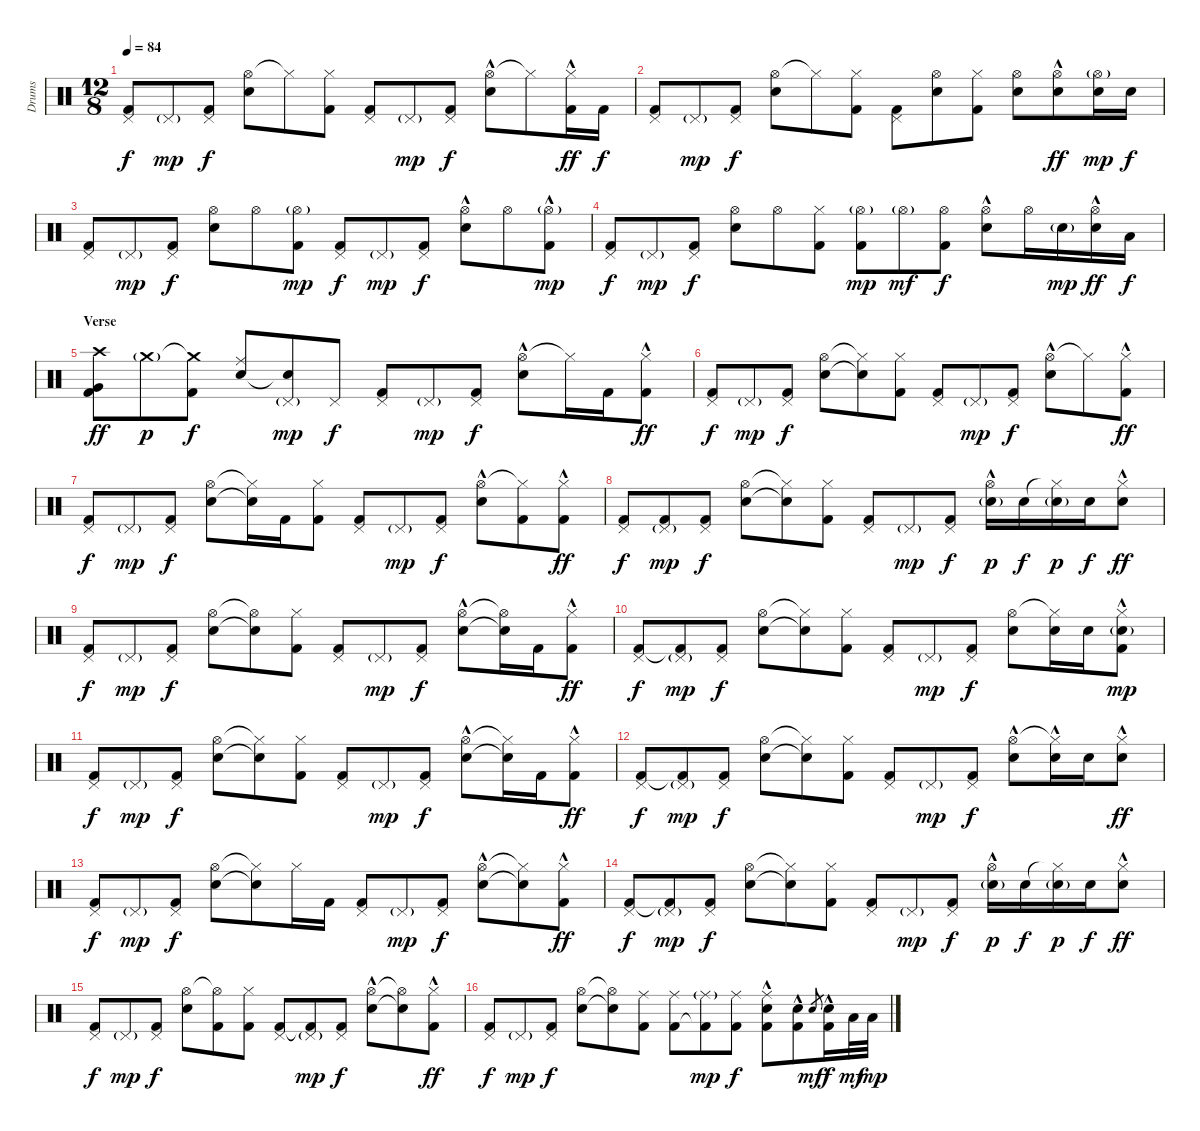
\track ("Drums" "Drums") {instrument percussion}
\staff {score}
\articulation defaults
\ts (12 8)
\tempo 84
\clef neutral
\ks c
("Pedal Hi-Hat (hit)" "Kick (hit) 2").8{dy f} "Pedal Hi-Hat (hit)"{g}.8{dy mp} ("Pedal Hi-Hat (hit)" "Kick (hit) 2").8{dy f} ("Hi-Hat (open)" "Electric Snare (hit)").8 "Hi-Hat (closed)"{t}.8 ("Hi-Hat (closed)" "Kick (hit) 2").8 ("Pedal Hi-Hat (hit)" "Kick (hit) 2").8 "Pedal Hi-Hat (hit)"{g}.8{dy mp} ("Pedal Hi-Hat (hit)" "Kick (hit) 2").8{dy f} ("Hi-Hat (open)" "Electric Snare (hit)"{hac}).8 "Hi-Hat (closed)"{t}.8 ("Hi-Hat (closed)"{hac} "Kick (hit) 2").16{dy ff} "Kick (hit) 2".16{dy f} |
("Pedal Hi-Hat (hit)" "Kick (hit) 2").8 "Pedal Hi-Hat (hit)"{g}.8{dy mp} ("Pedal Hi-Hat (hit)" "Kick (hit) 2").8{dy f} ("Hi-Hat (open)" "Electric Snare (hit)").8 "Hi-Hat (closed)"{t}.8 ("Hi-Hat (closed)" "Kick (hit) 2").8 ("Pedal Hi-Hat (hit)" "Kick (hit) 2").8 ("Hi-Hat (open)" "Electric Snare (hit)").8 ("Hi-Hat (closed)" "Kick (hit) 2").8 ("Hi-Hat (open)" "Electric Snare (hit)").8 ("Hi-Hat (open)" "Electric Snare (hit)"{hac}).8{dy ff} ("Hi-Hat (open)"{g} "Electric Snare (hit)").16{dy mp} "Electric Snare (hit)".16{dy f} |
("Pedal Hi-Hat (hit)" "Kick (hit) 2").8 "Pedal Hi-Hat (hit)"{g}.8{dy mp} ("Pedal Hi-Hat (hit)" "Kick (hit) 2").8{dy f} ("Hi-Hat (open)" "Electric Snare (hit)").8 "Hi-Hat (open)".8 ("Hi-Hat (open)"{g} "Kick (hit) 2").8{dy mp} ("Pedal Hi-Hat (hit)" "Kick (hit) 2").8{dy f} "Pedal Hi-Hat (hit)"{g}.8{dy mp} ("Pedal Hi-Hat (hit)" "Kick (hit) 2").8{dy f} ("Hi-Hat (open)" "Electric Snare (hit)"{hac}).8 "Hi-Hat (open)".8 ("Hi-Hat (open)"{g hac} "Kick (hit) 2").8{dy mp} |
("Pedal Hi-Hat (hit)" "Kick (hit) 2").8{dy f} "Pedal Hi-Hat (hit)"{g}.8{dy mp} ("Pedal Hi-Hat (hit)" "Kick (hit) 2").8{dy f} ("Hi-Hat (open)" "Electric Snare (hit)").8 "Hi-Hat (open)".8 ("Hi-Hat (closed)" "Kick (hit) 2").8 ("Hi-Hat (open)"{g} "Kick (hit) 2").8{dy mp} "Hi-Hat (open)"{g}.8{dy mf} ("Hi-Hat (open)" "Kick (hit) 2").8{dy f} ("Hi-Hat (open)" "Electric Snare (hit)"{hac}).8 "Hi-Hat (open)".16 "Electric Snare (hit)"{g}.16{dy mp} ("Hi-Hat (open)"{hac} "Electric Snare (hit)").16{dy ff} "Low Tom (hit)".16{dy f} |
\section ("" "Verse")
("Crash high (hit)" "Very Low Tom (hit)" "Kick (hit) 2").8{dy ff} "Crash medium (hit)"{g}.8{dy p} ("Crash medium (hit)"{t} "Kick (hit) 2").8{dy f} ("Ride (middle)" "Electric Snare (hit)").8 ("Pedal Hi-Hat (hit)"{g} "Snare (hit)"{t}).8{dy mp} "Pedal Hi-Hat (hit)".8{dy f} ("Pedal Hi-Hat (hit)" "Kick (hit) 2").8 "Pedal Hi-Hat (hit)"{g}.8{dy mp} ("Pedal Hi-Hat (hit)" "Kick (hit) 2").8{dy f} ("Hi-Hat (open)" "Electric Snare (hit)"{hac}).8 "Hi-Hat (closed)"{t}.16 "Kick (hit) 2".16 ("Hi-Hat (closed)"{hac} "Kick (hit) 2").8{dy ff} |
("Pedal Hi-Hat (hit)" "Kick (hit) 2").8{dy f} "Pedal Hi-Hat (hit)"{g}.8{dy mp} ("Pedal Hi-Hat (hit)" "Kick (hit) 2").8{dy f} ("Hi-Hat (open)" "Electric Snare (hit)").8 ("Hi-Hat (closed)"{t} "Snare (hit)"{t}).8 ("Hi-Hat (closed)" "Kick (hit) 2").8 ("Pedal Hi-Hat (hit)" "Kick (hit) 2").8 "Pedal Hi-Hat (hit)"{g}.8{dy mp} ("Pedal Hi-Hat (hit)" "Kick (hit) 2").8{dy f} ("Hi-Hat (open)" "Electric Snare (hit)"{hac}).8 "Hi-Hat (closed)"{t}.8 ("Hi-Hat (closed)"{hac} "Kick (hit) 2").8{dy ff} |
("Pedal Hi-Hat (hit)" "Kick (hit) 2").8{dy f} "Pedal Hi-Hat (hit)"{g}.8{dy mp} ("Pedal Hi-Hat (hit)" "Kick (hit) 2").8{dy f} ("Hi-Hat (open)" "Electric Snare (hit)").8 ("Hi-Hat (closed)"{t} "Snare (hit)"{t}).16 "Kick (hit) 2".16 ("Hi-Hat (closed)" "Kick (hit) 2").8 ("Pedal Hi-Hat (hit)" "Kick (hit) 2").8 "Pedal Hi-Hat (hit)"{g}.8{dy mp} ("Pedal Hi-Hat (hit)" "Kick (hit) 2").8{dy f} ("Hi-Hat (open)" "Electric Snare (hit)"{hac}).8 ("Hi-Hat (closed)"{t} "Kick (hit) 2").8 ("Hi-Hat (closed)"{hac} "Kick (hit) 2").8{dy ff} |
("Pedal Hi-Hat (hit)" "Kick (hit) 2").8{dy f} ("Pedal Hi-Hat (hit)"{g} "Kick (hit) 2").8{dy mp} ("Pedal Hi-Hat (hit)" "Kick (hit) 2").8{dy f} ("Hi-Hat (open)" "Electric Snare (hit)").8 ("Hi-Hat (closed)"{t} "Snare (hit)"{t}).8 ("Hi-Hat (closed)" "Kick (hit) 2").8 ("Pedal Hi-Hat (hit)" "Kick (hit) 2").8 "Pedal Hi-Hat (hit)"{g}.8{dy mp} ("Pedal Hi-Hat (hit)" "Kick (hit) 2").8{dy f} ("Hi-Hat (open)" "Electric Snare (hit)"{g hac}).16{dy p} "Electric Snare (hit)".16{dy f} ("Hi-Hat (closed)"{t} "Electric Snare (hit)"{g}).16{dy p} "Electric Snare (hit)".16{dy f} ("Hi-Hat (closed)"{hac} "Electric Snare (hit)").8{dy ff} |
("Pedal Hi-Hat (hit)" "Kick (hit) 2").8{dy f} "Pedal Hi-Hat (hit)"{g}.8{dy mp} ("Pedal Hi-Hat (hit)" "Kick (hit) 2").8{dy f} ("Hi-Hat (open)" "Electric Snare (hit)").8 ("Hi-Hat (open)"{t} "Snare (hit)"{t}).8 ("Hi-Hat (closed)" "Kick (hit) 2").8 ("Pedal Hi-Hat (hit)" "Kick (hit) 2").8 "Pedal Hi-Hat (hit)"{g}.8{dy mp} ("Pedal Hi-Hat (hit)" "Kick (hit) 2").8{dy f} ("Hi-Hat (open)" "Electric Snare (hit)"{hac}).8 ("Hi-Hat (open)"{t} "Electric Snare (hit)"{t}).16 "Kick (hit) 2".16 ("Hi-Hat (closed)"{hac} "Kick (hit) 2").8{dy ff} |
("Pedal Hi-Hat (hit)" "Kick (hit) 2").8{dy f} ("Pedal Hi-Hat (hit)"{g} "Kick (hit) 2"{t}).8{dy mp} ("Pedal Hi-Hat (hit)" "Kick (hit) 2").8{dy f} ("Hi-Hat (open)" "Electric Snare (hit)").8 ("Hi-Hat (closed)"{t} "Snare (hit)"{t}).8 ("Hi-Hat (closed)" "Kick (hit) 2").8 ("Pedal Hi-Hat (hit)" "Kick (hit) 2").8 "Pedal Hi-Hat (hit)"{g}.8{dy mp} ("Pedal Hi-Hat (hit)" "Kick (hit) 2").8{dy f} ("Hi-Hat (open)" "Electric Snare (hit)").8 ("Hi-Hat (closed)"{t} "Electric Snare (hit)").16 "Electric Snare (hit)".16 ("Hi-Hat (closed)"{hac} "Electric Snare (hit)"{g} "Kick (hit) 2").8{dy mp} |
("Pedal Hi-Hat (hit)" "Kick (hit) 2").8{dy f} "Pedal Hi-Hat (hit)"{g}.8{dy mp} ("Pedal Hi-Hat (hit)" "Kick (hit) 2").8{dy f} ("Hi-Hat (open)" "Electric Snare (hit)").8 ("Hi-Hat (closed)"{t} "Snare (hit)"{t}).8 ("Hi-Hat (closed)" "Kick (hit) 2").8 ("Pedal Hi-Hat (hit)" "Kick (hit) 2").8 "Pedal Hi-Hat (hit)"{g}.8{dy mp} ("Pedal Hi-Hat (hit)" "Kick (hit) 2").8{dy f} ("Hi-Hat (open)" "Electric Snare (hit)"{hac}).8 ("Hi-Hat (closed)"{t} "Electric Snare (hit)"{t}).16 "Kick (hit) 2".16 ("Hi-Hat (closed)"{hac} "Kick (hit) 2").8{dy ff} |
("Pedal Hi-Hat (hit)" "Kick (hit) 2").8{dy f} ("Pedal Hi-Hat (hit)"{g} "Kick (hit) 2"{t}).8{dy mp} ("Pedal Hi-Hat (hit)" "Kick (hit) 2").8{dy f} ("Hi-Hat (open)" "Electric Snare (hit)").8 ("Hi-Hat (closed)"{t} "Snare (hit)"{t}).8 ("Hi-Hat (closed)" "Kick (hit) 2").8 ("Pedal Hi-Hat (hit)" "Kick (hit) 2").8 "Pedal Hi-Hat (hit)"{g}.8{dy mp} ("Pedal Hi-Hat (hit)" "Kick (hit) 2").8{dy f} ("Hi-Hat (open)" "Electric Snare (hit)"{hac}).8 ("Hi-Hat (closed)"{t} "Electric Snare (hit)"{hac}).16 "Electric Snare (hit)".16 ("Hi-Hat (closed)"{hac} "Electric Snare (hit)").8{dy ff} |
("Pedal Hi-Hat (hit)" "Kick (hit) 2").8{dy f} "Pedal Hi-Hat (hit)"{g}.8{dy mp} ("Pedal Hi-Hat (hit)" "Kick (hit) 2").8{dy f} ("Hi-Hat (open)" "Electric Snare (hit)").8 ("Hi-Hat (closed)"{t} "Snare (hit)"{t}).8 "Hi-Hat (closed)".16 "Kick (hit) 2".16 ("Pedal Hi-Hat (hit)" "Kick (hit) 2").8 "Pedal Hi-Hat (hit)"{g}.8{dy mp} ("Pedal Hi-Hat (hit)" "Kick (hit) 2").8{dy f} ("Hi-Hat (open)" "Electric Snare (hit)"{hac}).8 ("Hi-Hat (closed)"{t} "Electric Snare (hit)"{t}).8 ("Hi-Hat (closed)"{hac} "Kick (hit) 2").8{dy ff} |
("Pedal Hi-Hat (hit)" "Kick (hit) 2").8{dy f} ("Pedal Hi-Hat (hit)"{g} "Kick (hit) 2"{t}).8{dy mp} ("Pedal Hi-Hat (hit)" "Kick (hit) 2").8{dy f} ("Hi-Hat (open)" "Electric Snare (hit)").8 ("Hi-Hat (closed)"{t} "Snare (hit)"{t}).8 ("Hi-Hat (closed)" "Kick (hit) 2").8 ("Pedal Hi-Hat (hit)" "Kick (hit) 2").8 "Pedal Hi-Hat (hit)"{g}.8{dy mp} ("Pedal Hi-Hat (hit)" "Kick (hit) 2").8{dy f} ("Hi-Hat (open)" "Electric Snare (hit)"{g hac}).16{dy p} "Electric Snare (hit)".16{dy f} ("Hi-Hat (closed)"{t} "Electric Snare (hit)"{g}).16{dy p} "Electric Snare (hit)".16{dy f} ("Hi-Hat (closed)"{hac} "Electric Snare (hit)").8{dy ff} |
("Pedal Hi-Hat (hit)" "Kick (hit) 2").8{dy f} "Pedal Hi-Hat (hit)"{g}.8{dy mp} ("Pedal Hi-Hat (hit)" "Kick (hit) 2").8{dy f} ("Hi-Hat (open)" "Electric Snare (hit)").8 ("Hi-Hat (open)"{t} "Kick (hit) 2").8 ("Hi-Hat (closed)" "Kick (hit) 2").8 ("Pedal Hi-Hat (hit)" "Kick (hit) 2").8 ("Pedal Hi-Hat (hit)"{g} "Kick (hit) 2"{t}).8{dy mp} ("Pedal Hi-Hat (hit)" "Kick (hit) 2").8{dy f} ("Hi-Hat (open)" "Electric Snare (hit)"{hac}).8 ("Hi-Hat (open)"{t} "Electric Snare (hit)"{t}).8 ("Hi-Hat (closed)"{hac} "Kick (hit) 2").8{dy ff} |
("Pedal Hi-Hat (hit)" "Kick (hit) 2").8{dy f} "Pedal Hi-Hat (hit)"{g}.8{dy mp} ("Pedal Hi-Hat (hit)" "Kick (hit) 2").8{dy f} ("Hi-Hat (open)" "Electric Snare (hit)").8 ("Hi-Hat (open)"{t} "Snare (hit)"{t}).8 ("Ride (middle)" "Kick (hit) 2").8 ("Ride (middle)" "Kick (hit) 2").8 ("Ride (middle)"{g} "Kick (hit) 2"{t}).8{dy mp} ("Ride (middle)" "Kick (hit) 2").8{dy f} ("Ride (middle)" "Electric Snare (hit)"{hac} "Kick (hit) 2"{hac}).8 ("Electric Snare (hit)"{hac} "Kick (hit) 2"{hac}).8 "Electric Snare (hit)".8{gr dy mf} ("Electric Snare (hit)"{hac} "Kick (hit) 2").16{dy f} "Low Tom (hit)".32{dy mf} "Low Tom (hit)".32{dy mp}
